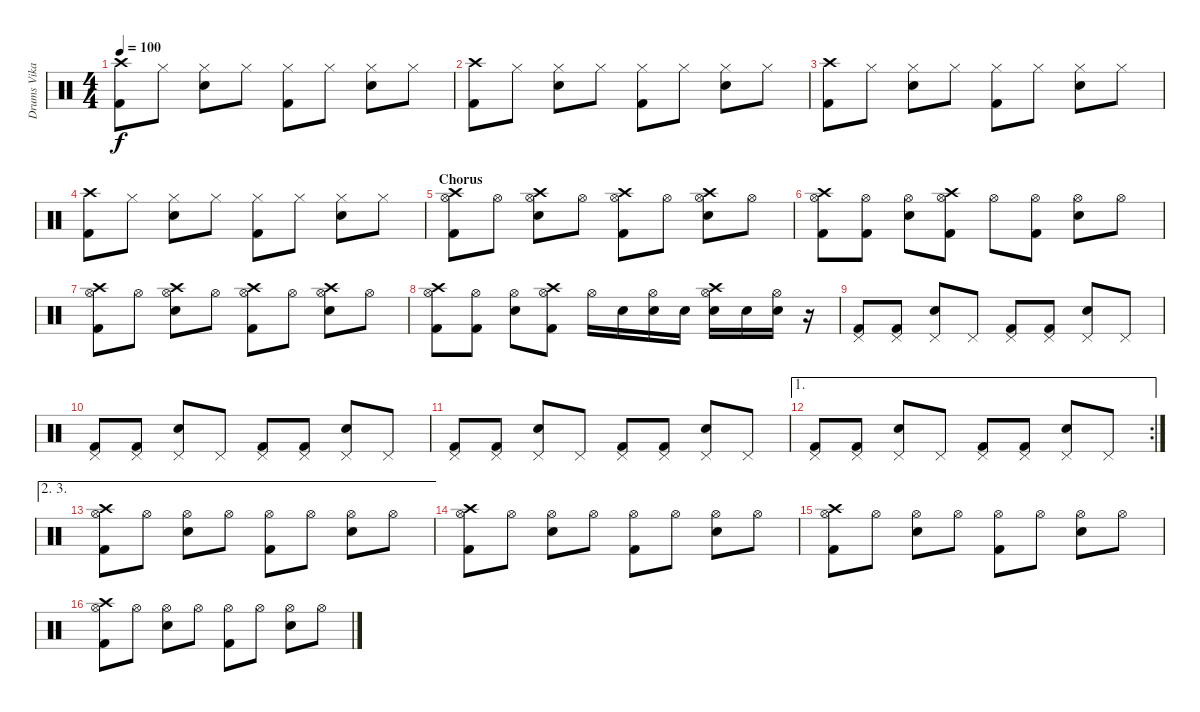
\track ("Drums Vikadel" "Drums Vika") {instrument percussion}
\staff {score}
\articulation defaults
\ts (4 4)
\tempo 100
\clef neutral
\ks c
("Crash high (hit)" "Kick (hit) 2").8{dy f} "Hi-Hat (closed)".8 ("Hi-Hat (closed)" "Snare (hit) 2").8 "Hi-Hat (closed)".8 ("Hi-Hat (closed)" "Kick (hit) 2").8 "Hi-Hat (closed)".8 ("Hi-Hat (closed)" "Snare (hit) 2").8 "Hi-Hat (closed)".8 |
("Crash high (hit)" "Kick (hit) 2").8 "Hi-Hat (closed)".8 ("Hi-Hat (closed)" "Snare (hit) 2").8 "Hi-Hat (closed)".8 ("Hi-Hat (closed)" "Kick (hit) 2").8 "Hi-Hat (closed)".8 ("Hi-Hat (closed)" "Snare (hit) 2").8 "Hi-Hat (closed)".8 |
("Crash high (hit)" "Kick (hit) 2").8 "Hi-Hat (closed)".8 ("Hi-Hat (closed)" "Snare (hit) 2").8 "Hi-Hat (closed)".8 ("Hi-Hat (closed)" "Kick (hit) 2").8 "Hi-Hat (closed)".8 ("Hi-Hat (closed)" "Snare (hit) 2").8 "Hi-Hat (closed)".8 |
("Crash high (hit)" "Kick (hit) 2").8 "Hi-Hat (closed)".8 ("Hi-Hat (closed)" "Snare (hit) 2").8 "Hi-Hat (closed)".8 ("Hi-Hat (closed)" "Kick (hit) 2").8 "Hi-Hat (closed)".8 ("Hi-Hat (closed)" "Snare (hit) 2").8 "Hi-Hat (closed)".8 |
\section ("" "Chorus")
("Crash high (hit)" "Kick (hit) 2" "Hi-Hat (open)").8 "Hi-Hat (open)".8 ("Crash high (hit)" "Snare (hit) 2" "Hi-Hat (open)").8 "Hi-Hat (open)".8 ("Crash high (hit)" "Kick (hit) 2" "Hi-Hat (open)").8 "Hi-Hat (open)".8 ("Crash high (hit)" "Snare (hit) 2" "Hi-Hat (open)").8 "Hi-Hat (open)".8 |
("Crash high (hit)" "Kick (hit) 2" "Hi-Hat (open)").8 ("Kick (hit) 2" "Hi-Hat (open)").8 ("Snare (hit) 2" "Hi-Hat (open)").8 ("Crash high (hit)" "Kick (hit) 2" "Hi-Hat (open)").8 "Hi-Hat (open)".8 ("Kick (hit) 2" "Hi-Hat (open)").8 ("Snare (hit) 2" "Hi-Hat (open)").8 "Hi-Hat (open)".8 |
("Crash high (hit)" "Kick (hit) 2" "Hi-Hat (open)").8 "Hi-Hat (open)".8 ("Crash high (hit)" "Snare (hit) 2" "Hi-Hat (open)").8 "Hi-Hat (open)".8 ("Crash high (hit)" "Kick (hit) 2" "Hi-Hat (open)").8 "Hi-Hat (open)".8 ("Crash high (hit)" "Snare (hit) 2" "Hi-Hat (open)").8 "Hi-Hat (open)".8 |
("Crash high (hit)" "Kick (hit) 2" "Hi-Hat (open)").8 ("Kick (hit) 2" "Hi-Hat (open)").8 ("Snare (hit) 2" "Hi-Hat (open)").8 ("Crash high (hit)" "Kick (hit) 2" "Hi-Hat (open)").8 "Hi-Hat (open)".16 "Snare (hit) 2".16 ("Snare (hit) 2" "Hi-Hat (open)").16 "Snare (hit) 2".16 ("Crash high (hit)" "Snare (hit) 2" "Hi-Hat (open)").16 "Snare (hit) 2".16 ("Snare (hit) 2" "Hi-Hat (open)").16 r.16 |
("Pedal Hi-Hat (hit)" "Kick (hit) 2").8 ("Pedal Hi-Hat (hit)" "Kick (hit) 2").8 ("Pedal Hi-Hat (hit)" "Electric Snare (hit)").8 "Pedal Hi-Hat (hit)".8 ("Pedal Hi-Hat (hit)" "Kick (hit) 2").8 ("Pedal Hi-Hat (hit)" "Kick (hit) 2").8 ("Pedal Hi-Hat (hit)" "Electric Snare (hit)").8 "Pedal Hi-Hat (hit)".8 |
("Pedal Hi-Hat (hit)" "Kick (hit) 2").8 ("Pedal Hi-Hat (hit)" "Kick (hit) 2").8 ("Pedal Hi-Hat (hit)" "Electric Snare (hit)").8 "Pedal Hi-Hat (hit)".8 ("Pedal Hi-Hat (hit)" "Kick (hit) 2").8 ("Pedal Hi-Hat (hit)" "Kick (hit) 2").8 ("Pedal Hi-Hat (hit)" "Electric Snare (hit)").8 "Pedal Hi-Hat (hit)".8 |
("Pedal Hi-Hat (hit)" "Kick (hit) 2").8 ("Pedal Hi-Hat (hit)" "Kick (hit) 2").8 ("Pedal Hi-Hat (hit)" "Electric Snare (hit)").8 "Pedal Hi-Hat (hit)".8 ("Pedal Hi-Hat (hit)" "Kick (hit) 2").8 ("Pedal Hi-Hat (hit)" "Kick (hit) 2").8 ("Pedal Hi-Hat (hit)" "Electric Snare (hit)").8 "Pedal Hi-Hat (hit)".8 |
\ae 1
\rc 2
("Pedal Hi-Hat (hit)" "Kick (hit) 2").8 ("Pedal Hi-Hat (hit)" "Kick (hit) 2").8 ("Pedal Hi-Hat (hit)" "Electric Snare (hit)").8 "Pedal Hi-Hat (hit)".8 ("Pedal Hi-Hat (hit)" "Kick (hit) 2").8 ("Pedal Hi-Hat (hit)" "Kick (hit) 2").8 ("Pedal Hi-Hat (hit)" "Electric Snare (hit)").8 "Pedal Hi-Hat (hit)".8 |
\ae (2 3)
("Hi-Hat (open)" "Crash high (hit)" "Kick (hit) 2").8 "Hi-Hat (open)".8 ("Hi-Hat (open)" "Electric Snare (hit)").8 "Hi-Hat (open)".8 ("Hi-Hat (open)" "Kick (hit) 2").8 "Hi-Hat (open)".8 ("Hi-Hat (open)" "Electric Snare (hit)").8 "Hi-Hat (open)".8 |
("Hi-Hat (open)" "Crash high (hit)" "Kick (hit) 2").8 "Hi-Hat (open)".8 ("Hi-Hat (open)" "Electric Snare (hit)").8 "Hi-Hat (open)".8 ("Hi-Hat (open)" "Kick (hit) 2").8 "Hi-Hat (open)".8 ("Hi-Hat (open)" "Electric Snare (hit)").8 "Hi-Hat (open)".8 |
("Hi-Hat (open)" "Crash high (hit)" "Kick (hit) 2").8 "Hi-Hat (open)".8 ("Hi-Hat (open)" "Electric Snare (hit)").8 "Hi-Hat (open)".8 ("Hi-Hat (open)" "Kick (hit) 2").8 "Hi-Hat (open)".8 ("Hi-Hat (open)" "Electric Snare (hit)").8 "Hi-Hat (open)".8 |
("Hi-Hat (open)" "Crash high (hit)" "Kick (hit) 2").8 "Hi-Hat (open)".8 ("Hi-Hat (open)" "Electric Snare (hit)").8 "Hi-Hat (open)".8 ("Hi-Hat (open)" "Kick (hit) 2").8 "Hi-Hat (open)".8 ("Hi-Hat (open)" "Electric Snare (hit)").8 "Hi-Hat (open)".8
